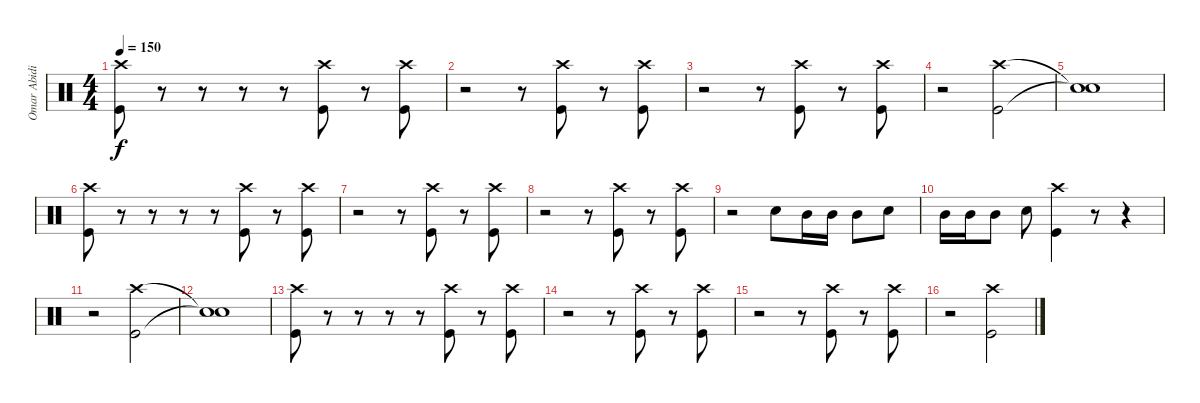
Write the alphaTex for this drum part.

\track ("Omar Abidi" "Omar Abidi") {instrument percussion}
\staff {score}
\articulation defaults
\ts (4 4)
\tempo 150
\clef neutral
\ks c
("Crash high (hit)" "Kick (hit)").8{dy f} r.8 r.8 r.8 r.8 ("Crash high (hit)" "Kick (hit)").8 r.8 ("Crash high (hit)" "Kick (hit)").8 |
r.2 r.8 ("Crash high (hit)" "Kick (hit)").8 r.8 ("Crash high (hit)" "Kick (hit)").8 |
r.2 r.8 ("Crash high (hit)" "Kick (hit)").8 r.8 ("Crash high (hit)" "Kick (hit)").8 |
r.2 ("Crash high (hit)" "Kick (hit)").2 |
("Snare (hit)"{t} "Snare (hit)"{t}).1 |
("Crash high (hit)" "Kick (hit)").8 r.8 r.8 r.8 r.8 ("Crash high (hit)" "Kick (hit)").8 r.8 ("Crash high (hit)" "Kick (hit)").8 |
r.2 r.8 ("Crash high (hit)" "Kick (hit)").8 r.8 ("Crash high (hit)" "Kick (hit)").8 |
r.2 r.8 ("Crash high (hit)" "Kick (hit)").8 r.8 ("Crash high (hit)" "Kick (hit)").8 |
r.2 "Snare (hit) 2".8 "Mid Tom (hit)".16 "Mid Tom (hit)".16 "Mid Tom (hit)".8 "Snare (hit) 2".8 |
"Mid Tom (hit)".16 "Mid Tom (hit)".16 "Mid Tom (hit)".8 "Snare (hit) 2".8 ("Crash high (hit)" "Kick (hit)").4 r.8 r.4 |
r.2 ("Crash high (hit)" "Kick (hit)").2 |
("Snare (hit)"{t} "Snare (hit)"{t}).1 |
("Crash high (hit)" "Kick (hit)").8 r.8 r.8 r.8 r.8 ("Crash high (hit)" "Kick (hit)").8 r.8 ("Crash high (hit)" "Kick (hit)").8 |
r.2 r.8 ("Crash high (hit)" "Kick (hit)").8 r.8 ("Crash high (hit)" "Kick (hit)").8 |
r.2 r.8 ("Crash high (hit)" "Kick (hit)").8 r.8 ("Crash high (hit)" "Kick (hit)").8 |
r.2 ("Crash high (hit)" "Kick (hit)").2
